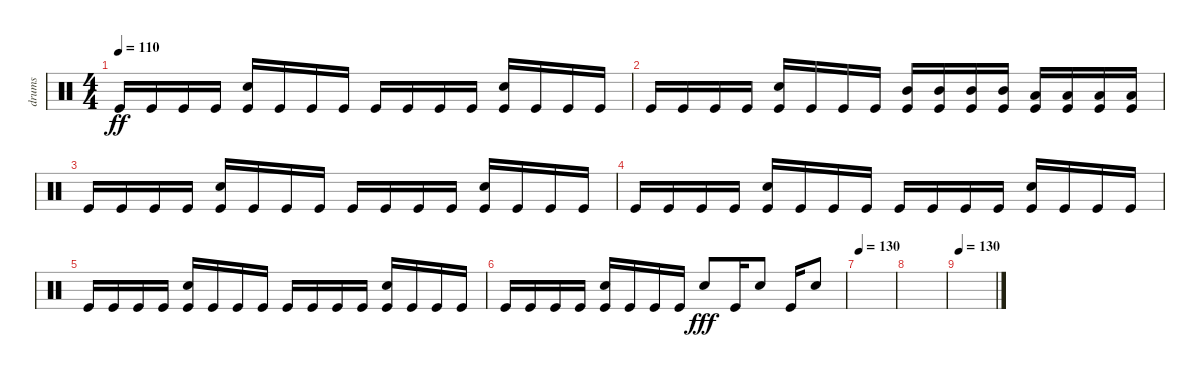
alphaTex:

\track ("drums" "drums") {instrument percussion}
\staff {score}
\articulation defaults
\ts (4 4)
\tempo 110
\clef neutral
\ks c "Kick (hit)".16{dy ff} "Kick (hit)".16 "Kick (hit)".16 "Kick (hit)".16
("Electric Snare (hit)" "Kick (hit)").16 "Kick (hit)".16 "Kick (hit)".16 "Kick (hit)".16 "Kick (hit)".16 "Kick (hit)".16 "Kick (hit)".16 "Kick (hit)".16 ("Electric Snare (hit)" "Kick (hit)").16 "Kick (hit)".16 "Kick (hit)".16 "Kick (hit)".16 |
"Kick (hit)".16 "Kick (hit)".16 "Kick (hit)".16 "Kick (hit)".16 ("Electric Snare (hit)" "Kick (hit)").16 "Kick (hit)".16 "Kick (hit)".16 "Kick (hit)".16 ("Mid Tom (hit)" "Kick (hit)").16 ("Mid Tom (hit)" "Kick (hit)").16 ("Mid Tom (hit)" "Kick (hit)").16 ("Mid Tom (hit)" "Kick (hit)").16 ("Low Tom (hit)" "Kick (hit)").16 ("Low Tom (hit)" "Kick (hit)").16 ("Low Tom (hit)" "Kick (hit)").16 ("Low Tom (hit)" "Kick (hit)").16 |
"Kick (hit)".16 "Kick (hit)".16 "Kick (hit)".16 "Kick (hit)".16 ("Electric Snare (hit)" "Kick (hit)").16 "Kick (hit)".16 "Kick (hit)".16 "Kick (hit)".16 "Kick (hit)".16 "Kick (hit)".16 "Kick (hit)".16 "Kick (hit)".16 ("Electric Snare (hit)" "Kick (hit)").16 "Kick (hit)".16 "Kick (hit)".16 "Kick (hit)".16 |
"Kick (hit)".16 "Kick (hit)".16 "Kick (hit)".16 "Kick (hit)".16 ("Electric Snare (hit)" "Kick (hit)").16 "Kick (hit)".16 "Kick (hit)".16 "Kick (hit)".16 "Kick (hit)".16 "Kick (hit)".16 "Kick (hit)".16 "Kick (hit)".16 ("Electric Snare (hit)" "Kick (hit)").16 "Kick (hit)".16 "Kick (hit)".16 "Kick (hit)".16 |
"Kick (hit)".16 "Kick (hit)".16 "Kick (hit)".16 "Kick (hit)".16 ("Electric Snare (hit)" "Kick (hit)").16 "Kick (hit)".16 "Kick (hit)".16 "Kick (hit)".16 "Kick (hit)".16 "Kick (hit)".16 "Kick (hit)".16 "Kick (hit)".16 ("Electric Snare (hit)" "Kick (hit)").16 "Kick (hit)".16 "Kick (hit)".16 "Kick (hit)".16 |
"Kick (hit)".16 "Kick (hit)".16 "Kick (hit)".16 "Kick (hit)".16 ("Electric Snare (hit)" "Kick (hit)").16 "Kick (hit)".16 "Kick (hit)".16 "Kick (hit)".16 "Electric Snare (hit)".8{dy fff} "Kick (hit)".16 "Electric Snare (hit)".8 "Kick (hit)".16 "Electric Snare (hit)".8 |
\tempo 130
|
|
\tempo 130
